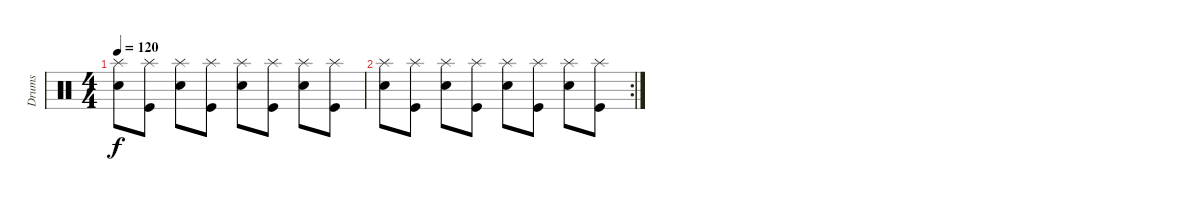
\track ("Drums" "Drums") {instrument percussion}
\staff {score}
\articulation defaults
\ts (4 4)
\tempo 120
\clef neutral
\ks c
("Splash (hit)" "Electric Snare (hit)").8{dy f} ("Splash (hit)" "Kick (hit)").8 ("Splash (hit)" "Electric Snare (hit)").8 ("Splash (hit)" "Kick (hit)").8 ("Splash (hit)" "Electric Snare (hit)").8 ("Splash (hit)" "Kick (hit)").8 ("Splash (hit)" "Electric Snare (hit)").8 ("Splash (hit)" "Kick (hit)").8 |
\rc 2
("Splash (hit)" "Electric Snare (hit)").8 ("Splash (hit)" "Kick (hit)").8 ("Splash (hit)" "Electric Snare (hit)").8 ("Splash (hit)" "Kick (hit)").8 ("Splash (hit)" "Electric Snare (hit)").8 ("Splash (hit)" "Kick (hit)").8 ("Splash (hit)" "Electric Snare (hit)").8 ("Splash (hit)" "Kick (hit)").8
